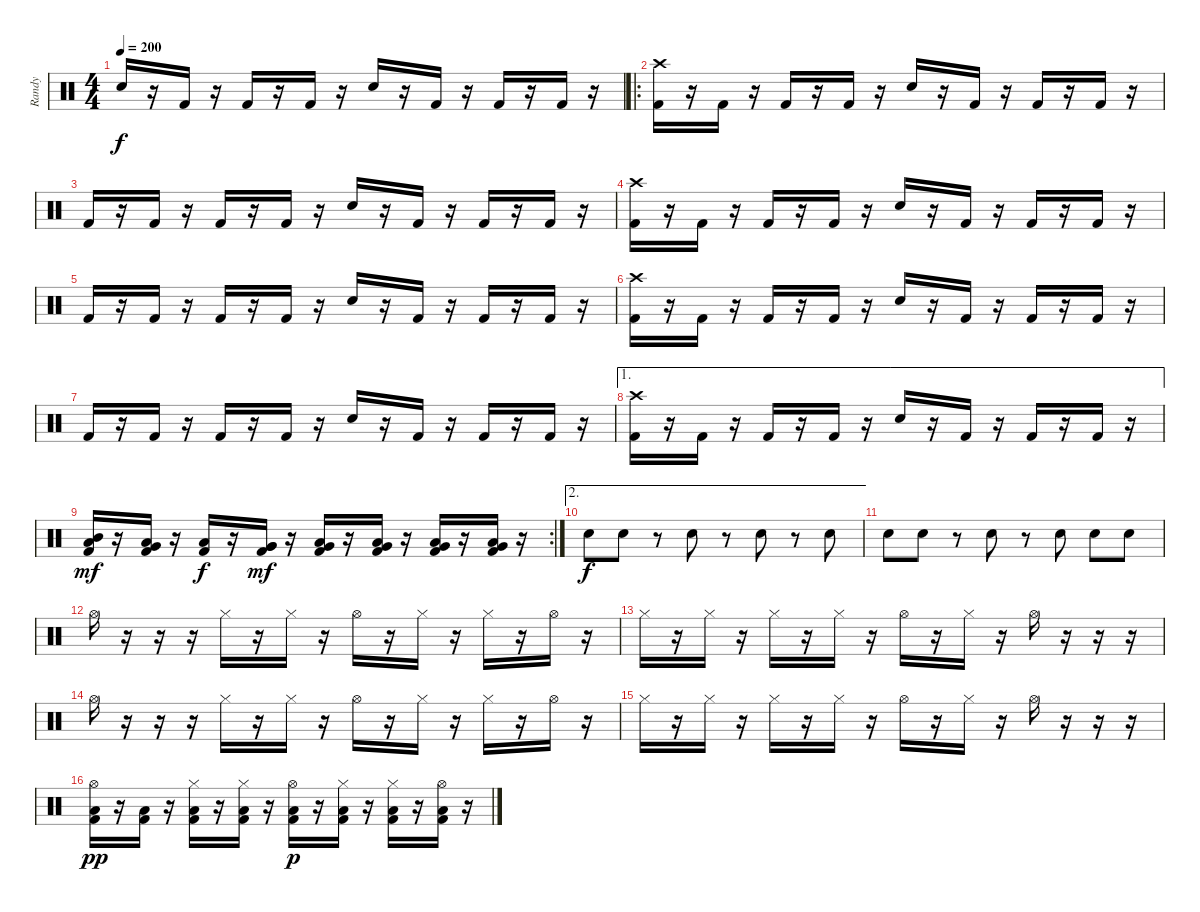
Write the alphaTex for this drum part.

\track ("Randy" "Randy") {instrument percussion}
\staff {score}
\articulation defaults
\ts (4 4)
\tempo 200
\clef neutral
\ks c "Electric Snare (hit)".16{dy f}
r.16 "Kick (hit) 2".16 r.16 "Kick (hit) 2".16 r.16 "Kick (hit) 2".16 r.16 "Electric Snare (hit)".16 r.16 "Kick (hit) 2".16 r.16 "Kick (hit) 2".16 r.16 "Kick (hit) 2".16 r.16 |
\ro
("Kick (hit) 2" "Crash high (hit)").16 r.16 "Kick (hit) 2".16 r.16 "Kick (hit) 2".16 r.16 "Kick (hit) 2".16 r.16 "Electric Snare (hit)".16 r.16 "Kick (hit) 2".16 r.16 "Kick (hit) 2".16 r.16 "Kick (hit) 2".16 r.16 |
"Kick (hit) 2".16 r.16 "Kick (hit) 2".16 r.16 "Kick (hit) 2".16 r.16 "Kick (hit) 2".16 r.16 "Electric Snare (hit)".16 r.16 "Kick (hit) 2".16 r.16 "Kick (hit) 2".16 r.16 "Kick (hit) 2".16 r.16 |
("Kick (hit) 2" "Crash high (hit)").16 r.16 "Kick (hit) 2".16 r.16 "Kick (hit) 2".16 r.16 "Kick (hit) 2".16 r.16 "Electric Snare (hit)".16 r.16 "Kick (hit) 2".16 r.16 "Kick (hit) 2".16 r.16 "Kick (hit) 2".16 r.16 |
"Kick (hit) 2".16 r.16 "Kick (hit) 2".16 r.16 "Kick (hit) 2".16 r.16 "Kick (hit) 2".16 r.16 "Electric Snare (hit)".16 r.16 "Kick (hit) 2".16 r.16 "Kick (hit) 2".16 r.16 "Kick (hit) 2".16 r.16 |
("Kick (hit) 2" "Crash high (hit)").16 r.16 "Kick (hit) 2".16 r.16 "Kick (hit) 2".16 r.16 "Kick (hit) 2".16 r.16 "Electric Snare (hit)".16 r.16 "Kick (hit) 2".16 r.16 "Kick (hit) 2".16 r.16 "Kick (hit) 2".16 r.16 |
"Kick (hit) 2".16 r.16 "Kick (hit) 2".16 r.16 "Kick (hit) 2".16 r.16 "Kick (hit) 2".16 r.16 "Electric Snare (hit)".16 r.16 "Kick (hit) 2".16 r.16 "Kick (hit) 2".16 r.16 "Kick (hit) 2".16 r.16 |
\ae 1
("Kick (hit) 2" "Crash high (hit)").16 r.16 "Kick (hit) 2".16 r.16 "Kick (hit) 2".16 r.16 "Kick (hit) 2".16 r.16 "Electric Snare (hit)".16 r.16 "Kick (hit) 2".16 r.16 "Kick (hit) 2".16 r.16 "Kick (hit) 2".16 r.16 |
\rc 2
("Kick (hit) 2" "Low Tom (hit)" "Mid Tom (hit)").16{dy mf} r.16 ("Kick (hit) 2" "Very Low Tom (hit)" "Low Tom (hit)").16 r.16 ("Kick (hit) 2" "Low Tom (hit)").16{dy f} r.16 ("Kick (hit) 2" "Very Low Tom (hit)" "Very Low Tom (hit)").16{dy mf} r.16 ("Kick (hit) 2" "Low Tom (hit)" "Very Low Tom (hit)").16 r.16 ("Kick (hit) 2" "Low Tom (hit)" "Very Low Tom (hit)").16 r.16 ("Kick (hit) 2" "Very Low Tom (hit)" "Low Floor Tom (hit)").16 r.16 ("Kick (hit) 2" "Very Low Tom (hit)" "Low Floor Tom (hit)").16 r.16 |
\ae 2 "Electric Snare (hit)".8{dy f} "Electric Snare (hit)".8
r.8 "Electric Snare (hit)".8 r.8 "Electric Snare (hit)".8 r.8 "Electric Snare (hit)".8 |
"Electric Snare (hit)".8 "Electric Snare (hit)".8 r.8 "Electric Snare (hit)".8 r.8 "Electric Snare (hit)".8 "Electric Snare (hit)".8 "Electric Snare (hit)".8 |
"Hi-Hat (open)".16 r.16 r.16 r.16 "Hi-Hat (closed)".16 r.16 "Hi-Hat (closed)".16 r.16 "Hi-Hat (open)".16 r.16 "Hi-Hat (closed)".16 r.16 "Hi-Hat (closed)".16 r.16 "Hi-Hat (open)".16 r.16 |
"Hi-Hat (closed)".16 r.16 "Hi-Hat (closed)".16 r.16 "Hi-Hat (closed)".16 r.16 "Hi-Hat (closed)".16 r.16 "Hi-Hat (open)".16 r.16 "Hi-Hat (closed)".16 r.16 "Hi-Hat (open)".16 r.16 r.16 r.16 |
"Hi-Hat (open)".16 r.16 r.16 r.16 "Hi-Hat (closed)".16 r.16 "Hi-Hat (closed)".16 r.16 "Hi-Hat (open)".16 r.16 "Hi-Hat (closed)".16 r.16 "Hi-Hat (closed)".16 r.16 "Hi-Hat (open)".16 r.16 |
"Hi-Hat (closed)".16 r.16 "Hi-Hat (closed)".16 r.16 "Hi-Hat (closed)".16 r.16 "Hi-Hat (closed)".16 r.16 "Hi-Hat (open)".16 r.16 "Hi-Hat (closed)".16 r.16 "Hi-Hat (open)".16 r.16 r.16 r.16 |
("Kick (hit) 2" "Low Tom (hit)" "Hi-Hat (open)").16{dy pp} r.16 ("Kick (hit) 2" "Low Tom (hit)").16 r.16 ("Kick (hit) 2" "Low Tom (hit)" "Hi-Hat (closed)").16 r.16 ("Kick (hit) 2" "Low Tom (hit)" "Hi-Hat (closed)").16 r.16 ("Kick (hit) 2" "Low Tom (hit)" "Hi-Hat (open)").16{dy p} r.16 ("Kick (hit) 2" "Low Tom (hit)" "Hi-Hat (closed)").16 r.16 ("Kick (hit) 2" "Low Tom (hit)" "Hi-Hat (closed)").16 r.16 ("Kick (hit) 2" "Low Tom (hit)" "Hi-Hat (open)").16 r.16
